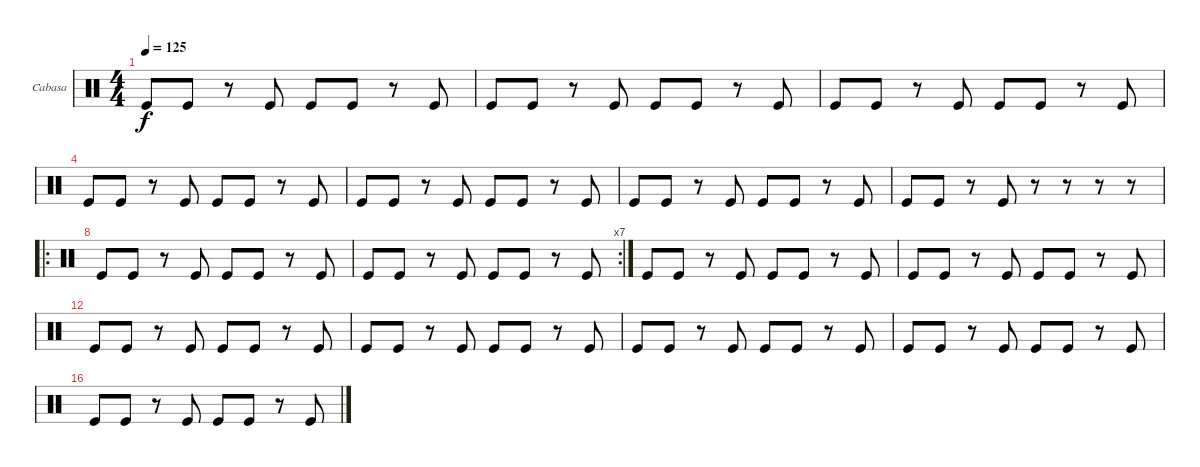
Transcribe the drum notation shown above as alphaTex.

\bracketExtendMode nobrackets
\firstSystemTrackNameOrientation horizontal
\otherSystemsTrackNameOrientation horizontal
\defaultBarNumberDisplay FirstOfSystem
\track ("Cabasa" "Cabasa") {instrument percussion}
\staff {score}
\articulation defaults
\ts (4 4)
\tempo 125
\clef neutral
\ks c "Kick (hit)".8{dy f} "Kick (hit)".8
r.8 "Kick (hit)".8 "Kick (hit)".8 "Kick (hit)".8 r.8 "Kick (hit)".8 |
"Kick (hit)".8 "Kick (hit)".8 r.8 "Kick (hit)".8 "Kick (hit)".8 "Kick (hit)".8 r.8 "Kick (hit)".8 |
"Kick (hit)".8 "Kick (hit)".8 r.8 "Kick (hit)".8 "Kick (hit)".8 "Kick (hit)".8 r.8 "Kick (hit)".8 |
"Kick (hit)".8 "Kick (hit)".8 r.8 "Kick (hit)".8 "Kick (hit)".8 "Kick (hit)".8 r.8 "Kick (hit)".8 |
"Kick (hit)".8 "Kick (hit)".8 r.8 "Kick (hit)".8 "Kick (hit)".8 "Kick (hit)".8 r.8 "Kick (hit)".8 |
"Kick (hit)".8 "Kick (hit)".8 r.8 "Kick (hit)".8 "Kick (hit)".8 "Kick (hit)".8 r.8 "Kick (hit)".8 |
"Kick (hit)".8 "Kick (hit)".8 r.8 "Kick (hit)".8 r.8 r.8 r.8 r.8 |
\ro "Kick (hit)".8 "Kick (hit)".8
r.8 "Kick (hit)".8 "Kick (hit)".8 "Kick (hit)".8 r.8 "Kick (hit)".8 |
\rc 7 "Kick (hit)".8 "Kick (hit)".8
r.8 "Kick (hit)".8 "Kick (hit)".8 "Kick (hit)".8 r.8 "Kick (hit)".8 |
"Kick (hit)".8 "Kick (hit)".8 r.8 "Kick (hit)".8 "Kick (hit)".8 "Kick (hit)".8 r.8 "Kick (hit)".8 |
"Kick (hit)".8 "Kick (hit)".8 r.8 "Kick (hit)".8 "Kick (hit)".8 "Kick (hit)".8 r.8 "Kick (hit)".8 |
"Kick (hit)".8 "Kick (hit)".8 r.8 "Kick (hit)".8 "Kick (hit)".8 "Kick (hit)".8 r.8 "Kick (hit)".8 |
"Kick (hit)".8 "Kick (hit)".8 r.8 "Kick (hit)".8 "Kick (hit)".8 "Kick (hit)".8 r.8 "Kick (hit)".8 |
"Kick (hit)".8 "Kick (hit)".8 r.8 "Kick (hit)".8 "Kick (hit)".8 "Kick (hit)".8 r.8 "Kick (hit)".8 |
"Kick (hit)".8 "Kick (hit)".8 r.8 "Kick (hit)".8 "Kick (hit)".8 "Kick (hit)".8 r.8 "Kick (hit)".8 |
"Kick (hit)".8 "Kick (hit)".8 r.8 "Kick (hit)".8 "Kick (hit)".8 "Kick (hit)".8 r.8 "Kick (hit)".8
